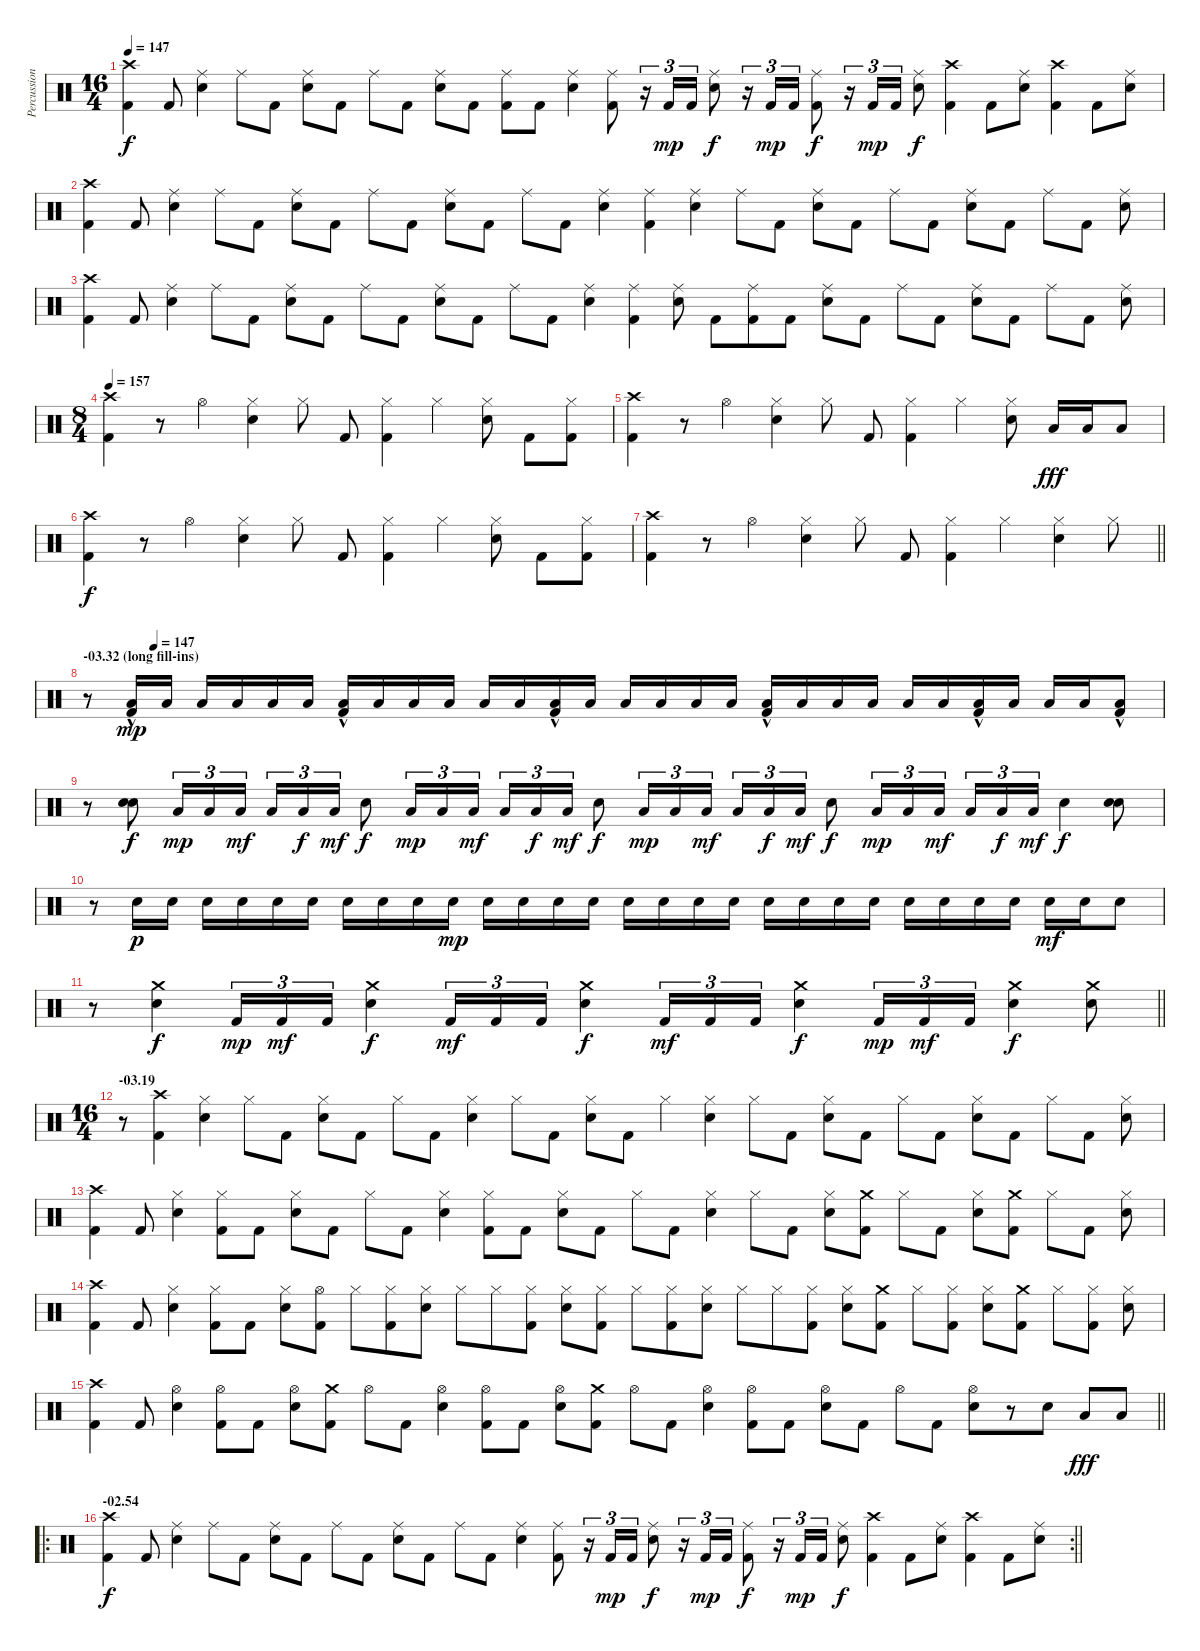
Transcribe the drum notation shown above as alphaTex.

\track ("Percussion" "Percussion") {instrument percussion}
\staff {score}
\articulation defaults
\ts (16 4)
\tempo 147
\clef neutral
\ks c
("Crash high (hit)" "Kick (hit) 2").4{dy f} "Kick (hit) 2".8 ("Ride (middle)" "Electric Snare (hit)").4 "Ride (middle)".8{beam merge} "Kick (hit) 2".8{beam split} ("Ride (middle)" "Electric Snare (hit)").8{beam merge} "Kick (hit) 2".8{beam split} "Ride (middle)".8{beam merge} "Kick (hit) 2".8{beam split} ("Ride (middle)" "Electric Snare (hit)").8{beam merge} "Kick (hit) 2".8{beam split} ("Ride (middle)" "Kick (hit) 2").8{beam merge} "Kick (hit) 2".8 ("Ride (middle)" "Electric Snare (hit)").4 ("Ride (middle)" "Kick (hit) 2").8 r.16{tu (3 2)} "Kick (hit) 2".16{tu (3 2) dy mp} "Kick (hit) 2".16{tu (3 2)} ("Ride (middle)" "Electric Snare (hit)").8{dy f} r.16{tu (3 2)} "Kick (hit) 2".16{tu (3 2) dy mp} "Kick (hit) 2".16{tu (3 2)} ("Ride (middle)" "Kick (hit) 2").8{dy f} r.16{tu (3 2)} "Kick (hit) 2".16{tu (3 2) dy mp} "Kick (hit) 2".16{tu (3 2)} ("Ride (middle)" "Electric Snare (hit)").8{dy f} ("Crash high (hit)" "Kick (hit) 2").4 "Kick (hit) 2".8 ("Ride (middle)" "Electric Snare (hit)").8 ("Crash high (hit)" "Kick (hit) 2").4 "Kick (hit) 2".8 ("Ride (middle)" "Electric Snare (hit)").8 |
("Crash high (hit)" "Kick (hit) 2").4 "Kick (hit) 2".8 ("Ride (middle)" "Electric Snare (hit)").4 "Ride (middle)".8{beam merge} "Kick (hit) 2".8{beam split} ("Ride (middle)" "Electric Snare (hit)").8{beam merge} "Kick (hit) 2".8{beam split} "Ride (middle)".8{beam merge} "Kick (hit) 2".8{beam split} ("Ride (middle)" "Electric Snare (hit)").8{beam merge} "Kick (hit) 2".8{beam split} "Ride (middle)".8{beam merge} "Kick (hit) 2".8 ("Ride (middle)" "Electric Snare (hit)").4 ("Ride (middle)" "Kick (hit) 2").4 ("Ride (middle)" "Electric Snare (hit)").4 "Ride (middle)".8{beam merge} "Kick (hit) 2".8{beam split} ("Ride (middle)" "Electric Snare (hit)").8{beam merge} "Kick (hit) 2".8{beam split} "Ride (middle)".8{beam merge} "Kick (hit) 2".8{beam split} ("Ride (middle)" "Electric Snare (hit)").8{beam merge} "Kick (hit) 2".8{beam split} "Ride (middle)".8{beam merge} "Kick (hit) 2".8{beam split} ("Ride (middle)" "Electric Snare (hit)").8 |
("Crash high (hit)" "Kick (hit) 2").4 "Kick (hit) 2".8 ("Ride (middle)" "Electric Snare (hit)").4 "Ride (middle)".8{beam merge} "Kick (hit) 2".8{beam split} ("Ride (middle)" "Electric Snare (hit)").8{beam merge} "Kick (hit) 2".8{beam split} "Ride (middle)".8{beam merge} "Kick (hit) 2".8{beam split} ("Ride (middle)" "Electric Snare (hit)").8{beam merge} "Kick (hit) 2".8{beam split} "Ride (middle)".8{beam merge} "Kick (hit) 2".8 ("Ride (middle)" "Electric Snare (hit)").4 ("Ride (middle)" "Kick (hit) 2").4 ("Ride (middle)" "Electric Snare (hit)").8 "Kick (hit) 2".8 ("Ride (middle)" "Kick (hit) 2").8{beam merge} "Kick (hit) 2".8{beam split} ("Ride (middle)" "Electric Snare (hit)").8{beam merge} "Kick (hit) 2".8{beam split} "Ride (middle)".8{beam merge} "Kick (hit) 2".8{beam split} ("Ride (middle)" "Electric Snare (hit)").8{beam merge} "Kick (hit) 2".8{beam split} "Ride (middle)".8{beam merge} "Kick (hit) 2".8{beam split} ("Ride (middle)" "Electric Snare (hit)").8 |
\ts (8 4)
\tempo 157
("Crash high (hit)" "Kick (hit) 2").4 r.8 "Hi-Hat (open)".4 ("Hi-Hat (closed)" "Electric Snare (hit)").4 "Hi-Hat (closed)".8 "Kick (hit) 2".8 ("Hi-Hat (closed)" "Kick (hit) 2").4 "Hi-Hat (closed)".4 ("Hi-Hat (closed)" "Electric Snare (hit)").8 "Kick (hit) 2".8 ("Hi-Hat (closed)" "Kick (hit) 2").8 |
("Crash high (hit)" "Kick (hit) 2").4 r.8 "Hi-Hat (open)".4 ("Hi-Hat (closed)" "Electric Snare (hit)").4 "Hi-Hat (closed)".8 "Kick (hit) 2".8 ("Hi-Hat (closed)" "Kick (hit) 2").4 "Hi-Hat (closed)".4 ("Hi-Hat (closed)" "Electric Snare (hit)").8 "Low Tom (hit)".16{dy fff} "Low Tom (hit)".16 "Low Tom (hit)".8 |
("Crash high (hit)" "Kick (hit) 2").4{dy f} r.8 "Hi-Hat (open)".4 ("Hi-Hat (closed)" "Electric Snare (hit)").4 "Hi-Hat (closed)".8 "Kick (hit) 2".8 ("Hi-Hat (closed)" "Kick (hit) 2").4 "Hi-Hat (closed)".4 ("Hi-Hat (closed)" "Electric Snare (hit)").8 "Kick (hit) 2".8 ("Hi-Hat (closed)" "Kick (hit) 2").8 |
\barLineRight lightlight
("Crash high (hit)" "Kick (hit) 2").4 r.8 "Hi-Hat (open)".4 ("Hi-Hat (closed)" "Electric Snare (hit)").4 "Hi-Hat (closed)".8 "Kick (hit) 2".8 ("Hi-Hat (closed)" "Kick (hit) 2").4 "Hi-Hat (closed)".4 ("Hi-Hat (closed)" "Electric Snare (hit)").4 "Hi-Hat (closed)".8 |
\section ("" "-03.32 (long fill-ins)")
\tempo (147 0.0625)
r.8 ("Low Tom (hit)"{hac} "Kick (hit) 2").16{dy mp} "Low Tom (hit)".16 "Low Tom (hit)".16 "Low Tom (hit)".16 "Low Tom (hit)".16 "Low Tom (hit)".16 ("Low Tom (hit)"{hac} "Kick (hit) 2").16 "Low Tom (hit)".16 "Low Tom (hit)".16 "Low Tom (hit)".16 "Low Tom (hit)".16 "Low Tom (hit)".16 ("Low Tom (hit)"{hac} "Kick (hit) 2").16 "Low Tom (hit)".16 "Low Tom (hit)".16 "Low Tom (hit)".16 "Low Tom (hit)".16 "Low Tom (hit)".16 ("Low Tom (hit)"{hac} "Kick (hit) 2").16 "Low Tom (hit)".16 "Low Tom (hit)".16 "Low Tom (hit)".16 "Low Tom (hit)".16 "Low Tom (hit)".16 ("Low Tom (hit)"{hac} "Kick (hit) 2").16 "Low Tom (hit)".16 "Low Tom (hit)".16 "Low Tom (hit)".16 ("Low Tom (hit)"{hac} "Kick (hit) 2").8 |
r.8 ("Electric Snare (hit)" "Electric Snare (hit)").8{dy f} "Low Tom (hit)".16{tu (3 2) dy mp} "Low Tom (hit)".16{tu (3 2)} "Low Tom (hit)".16{tu (3 2) dy mf beam splitsecondary} "Low Tom (hit)".16{tu (3 2)} "Low Tom (hit)".16{tu (3 2) dy f} "Low Tom (hit)".16{tu (3 2) dy mf} "Electric Snare (hit)".8{dy f} "Low Tom (hit)".16{tu (3 2) dy mp} "Low Tom (hit)".16{tu (3 2)} "Low Tom (hit)".16{tu (3 2) dy mf} "Low Tom (hit)".16{tu (3 2)} "Low Tom (hit)".16{tu (3 2) dy f} "Low Tom (hit)".16{tu (3 2) dy mf} "Electric Snare (hit)".8{dy f} "Low Tom (hit)".16{tu (3 2) dy mp} "Low Tom (hit)".16{tu (3 2)} "Low Tom (hit)".16{tu (3 2) dy mf beam splitsecondary} "Low Tom (hit)".16{tu (3 2)} "Low Tom (hit)".16{tu (3 2) dy f} "Low Tom (hit)".16{tu (3 2) dy mf} "Electric Snare (hit)".8{dy f} "Low Tom (hit)".16{tu (3 2) dy mp} "Low Tom (hit)".16{tu (3 2)} "Low Tom (hit)".16{tu (3 2) dy mf} "Low Tom (hit)".16{tu (3 2)} "Low Tom (hit)".16{tu (3 2) dy f} "Low Tom (hit)".16{tu (3 2) dy mf} "Electric Snare (hit)".4{dy f} ("Electric Snare (hit)" "Electric Snare (hit)").8 |
r.8 "Electric Snare (hit)".16{dy p} "Electric Snare (hit)".16 "Electric Snare (hit)".16 "Electric Snare (hit)".16 "Electric Snare (hit)".16 "Electric Snare (hit)".16 "Electric Snare (hit)".16 "Electric Snare (hit)".16 "Electric Snare (hit)".16 "Electric Snare (hit)".16{dy mp} "Electric Snare (hit)".16 "Electric Snare (hit)".16 "Electric Snare (hit)".16 "Electric Snare (hit)".16 "Electric Snare (hit)".16 "Electric Snare (hit)".16 "Electric Snare (hit)".16 "Electric Snare (hit)".16 "Electric Snare (hit)".16 "Electric Snare (hit)".16 "Electric Snare (hit)".16 "Electric Snare (hit)".16 "Electric Snare (hit)".16 "Electric Snare (hit)".16 "Electric Snare (hit)".16 "Electric Snare (hit)".16 "Electric Snare (hit)".16{dy mf} "Electric Snare (hit)".16 "Electric Snare (hit)".8 |
\barLineRight lightlight
r.8 ("Crash medium (hit)" "Electric Snare (hit)").4{dy f} "Kick (hit) 2".16{tu (3 2) dy mp} "Kick (hit) 2".16{tu (3 2) dy mf} "Kick (hit) 2".16{tu (3 2)} ("Crash medium (hit)" "Electric Snare (hit)").4{dy f} "Kick (hit) 2".16{tu (3 2) dy mf} "Kick (hit) 2".16{tu (3 2)} "Kick (hit) 2".16{tu (3 2)} ("Crash medium (hit)" "Electric Snare (hit)").4{dy f} "Kick (hit) 2".16{tu (3 2) dy mf} "Kick (hit) 2".16{tu (3 2)} "Kick (hit) 2".16{tu (3 2)} ("Crash medium (hit)" "Electric Snare (hit)").4{dy f} "Kick (hit) 2".16{tu (3 2) dy mp} "Kick (hit) 2".16{tu (3 2) dy mf} "Kick (hit) 2".16{tu (3 2)} ("Crash medium (hit)" "Electric Snare (hit)").4{dy f} ("Crash medium (hit)" "Electric Snare (hit)").8 |
\ts (16 4)
\section ("" "-03.19")
r.8 ("Crash high (hit)" "Kick (hit) 2").4 ("Hi-Hat (closed)" "Electric Snare (hit)").4 "Hi-Hat (closed)".8{beam merge} "Kick (hit) 2".8{beam split} ("Hi-Hat (closed)" "Electric Snare (hit)").8{beam merge} "Kick (hit) 2".8{beam split} "Hi-Hat (closed)".8{beam merge} "Kick (hit) 2".8 ("Hi-Hat (closed)" "Electric Snare (hit)").4 "Hi-Hat (closed)".8{beam merge} "Kick (hit) 2".8{beam split} ("Hi-Hat (closed)" "Electric Snare (hit)").8{beam merge} "Kick (hit) 2".8 "Hi-Hat (closed)".4 ("Hi-Hat (closed)" "Electric Snare (hit)").4 "Hi-Hat (closed)".8{beam merge} "Kick (hit) 2".8{beam split} ("Hi-Hat (closed)" "Electric Snare (hit)").8{beam merge} "Kick (hit) 2".8{beam split} "Hi-Hat (closed)".8{beam merge} "Kick (hit) 2".8{beam split} ("Hi-Hat (closed)" "Electric Snare (hit)").8{beam merge} "Kick (hit) 2".8{beam split} "Hi-Hat (closed)".8{beam merge} "Kick (hit) 2".8{beam split} ("Hi-Hat (closed)" "Electric Snare (hit)").8 |
("Crash high (hit)" "Kick (hit) 2").4 "Kick (hit) 2".8 ("Hi-Hat (closed)" "Electric Snare (hit)").4 ("Hi-Hat (closed)" "Kick (hit) 2").8{beam merge} "Kick (hit) 2".8{beam split} ("Hi-Hat (closed)" "Electric Snare (hit)").8{beam merge} "Kick (hit) 2".8{beam split} "Hi-Hat (closed)".8{beam merge} "Kick (hit) 2".8 ("Hi-Hat (closed)" "Electric Snare (hit)").4 ("Hi-Hat (closed)" "Kick (hit) 2").8{beam merge} "Kick (hit) 2".8{beam split} ("Hi-Hat (closed)" "Electric Snare (hit)").8{beam merge} "Kick (hit) 2".8{beam split} "Hi-Hat (closed)".8{beam merge} "Kick (hit) 2".8 ("Hi-Hat (closed)" "Electric Snare (hit)").4 "Hi-Hat (closed)".8{beam merge} "Kick (hit) 2".8{beam split} ("Hi-Hat (closed)" "Electric Snare (hit)").8{beam merge} ("Crash medium (hit)" "Kick (hit) 2").8{beam split} "Hi-Hat (closed)".8{beam merge} "Kick (hit) 2".8{beam split} ("Hi-Hat (closed)" "Electric Snare (hit)").8{beam merge} ("Crash medium (hit)" "Kick (hit) 2").8{beam split} "Hi-Hat (closed)".8{beam merge} "Kick (hit) 2".8{beam split} ("Hi-Hat (closed)" "Electric Snare (hit)").8 |
("Crash high (hit)" "Kick (hit) 2").4 "Kick (hit) 2".8 ("Hi-Hat (closed)" "Electric Snare (hit)").4 ("Hi-Hat (closed)" "Kick (hit) 2").8{beam merge} "Kick (hit) 2".8{beam split} ("Hi-Hat (closed)" "Electric Snare (hit)").8{beam merge} ("Hi-Hat (open)" "Kick (hit) 2").8{beam split} "Hi-Hat (closed)".8{beam merge} ("Hi-Hat (closed)" "Kick (hit) 2").8 ("Hi-Hat (closed)" "Electric Snare (hit)").8 "Hi-Hat (closed)".8 "Hi-Hat (closed)".8{beam merge} ("Hi-Hat (closed)" "Kick (hit) 2").8{beam split} ("Hi-Hat (closed)" "Electric Snare (hit)").8{beam merge} ("Hi-Hat (closed)" "Kick (hit) 2").8{beam split} "Hi-Hat (closed)".8{beam merge} ("Hi-Hat (closed)" "Kick (hit) 2").8 ("Hi-Hat (closed)" "Electric Snare (hit)").8 "Hi-Hat (closed)".8 "Hi-Hat (closed)".8{beam merge} ("Hi-Hat (closed)" "Kick (hit) 2").8{beam split} ("Hi-Hat (closed)" "Electric Snare (hit)").8{beam merge} ("Crash medium (hit)" "Kick (hit) 2").8{beam split} "Hi-Hat (closed)".8{beam merge} ("Hi-Hat (closed)" "Kick (hit) 2").8{beam split} ("Hi-Hat (closed)" "Electric Snare (hit)").8{beam merge} ("Crash medium (hit)" "Kick (hit) 2").8{beam split} "Hi-Hat (closed)".8{beam merge} ("Hi-Hat (closed)" "Kick (hit) 2").8{beam split} ("Hi-Hat (closed)" "Electric Snare (hit)").8 |
\barLineRight lightlight
("Crash high (hit)" "Kick (hit) 2").4 "Kick (hit) 2".8 ("Hi-Hat (open)" "Electric Snare (hit)").4 ("Hi-Hat (open)" "Kick (hit) 2").8{beam merge} "Kick (hit) 2".8{beam split} ("Hi-Hat (open)" "Electric Snare (hit)").8{beam merge} ("Crash medium (hit)" "Kick (hit) 2").8{beam split} "Hi-Hat (open)".8{beam merge} "Kick (hit) 2".8 ("Hi-Hat (open)" "Electric Snare (hit)").4 ("Hi-Hat (open)" "Kick (hit) 2").8{beam merge} "Kick (hit) 2".8{beam split} ("Hi-Hat (open)" "Electric Snare (hit)").8{beam merge} ("Crash medium (hit)" "Kick (hit) 2").8{beam split} "Hi-Hat (open)".8{beam merge} "Kick (hit) 2".8 ("Hi-Hat (open)" "Electric Snare (hit)").4 ("Hi-Hat (open)" "Kick (hit) 2").8{beam merge} "Kick (hit) 2".8{beam split} ("Hi-Hat (open)" "Electric Snare (hit)").8{beam merge} "Kick (hit) 2".8{beam split} "Hi-Hat (open)".8{beam merge} "Kick (hit) 2".8{beam split} ("Hi-Hat (open)" "Electric Snare (hit)").8{beam merge} r.8 "Electric Snare (hit)".8 "Low Tom (hit)".8{dy fff} "Low Tom (hit)".8 |
\ro
\rc 2
\section ("" "-02.54")
\barLineRight lightlight
("Crash high (hit)" "Kick (hit) 2").4{dy f} "Kick (hit) 2".8 ("Ride (middle)" "Electric Snare (hit)").4 "Ride (middle)".8{beam merge} "Kick (hit) 2".8{beam split} ("Ride (middle)" "Electric Snare (hit)").8{beam merge} "Kick (hit) 2".8{beam split} "Ride (middle)".8{beam merge} "Kick (hit) 2".8{beam split} ("Ride (middle)" "Electric Snare (hit)").8{beam merge} "Kick (hit) 2".8{beam split} "Ride (middle)".8{beam merge} "Kick (hit) 2".8 ("Ride (middle)" "Electric Snare (hit)").4 ("Ride (middle)" "Kick (hit) 2").8 r.16{tu (3 2)} "Kick (hit) 2".16{tu (3 2) dy mp} "Kick (hit) 2".16{tu (3 2)} ("Ride (middle)" "Electric Snare (hit)").8{dy f} r.16{tu (3 2)} "Kick (hit) 2".16{tu (3 2) dy mp} "Kick (hit) 2".16{tu (3 2)} ("Ride (middle)" "Kick (hit) 2").8{dy f} r.16{tu (3 2)} "Kick (hit) 2".16{tu (3 2) dy mp} "Kick (hit) 2".16{tu (3 2)} ("Ride (middle)" "Electric Snare (hit)").8{dy f} ("Crash high (hit)" "Kick (hit) 2").4 "Kick (hit) 2".8 ("Ride (middle)" "Electric Snare (hit)").8 ("Crash high (hit)" "Kick (hit) 2").4 "Kick (hit) 2".8 ("Ride (middle)" "Electric Snare (hit)").8
